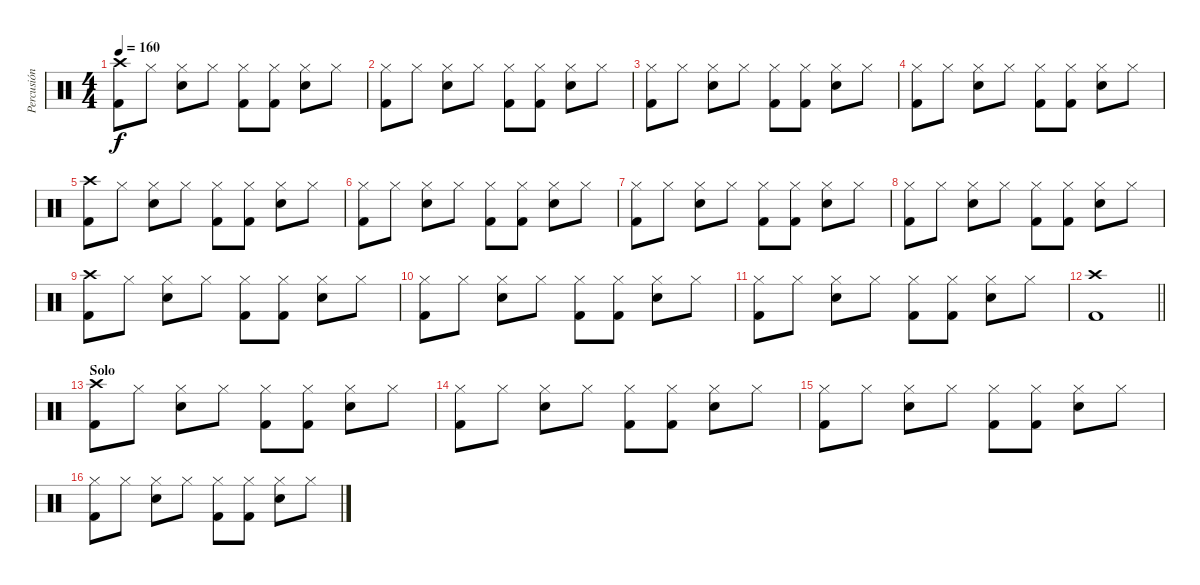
\track ("Percusión" "Percusión") {instrument percussion}
\staff {score}
\articulation defaults
\ts (4 4)
\tempo 160
\clef neutral
\ks c
("Crash high (hit)" "Kick (hit) 2").8{dy f} "Hi-Hat (closed)".8 ("Hi-Hat (closed)" "Snare (hit) 2").8 "Hi-Hat (closed)".8 ("Hi-Hat (closed)" "Kick (hit) 2").8 ("Hi-Hat (closed)" "Kick (hit) 2").8 ("Hi-Hat (closed)" "Snare (hit) 2").8 "Hi-Hat (closed)".8 |
("Hi-Hat (closed)" "Kick (hit) 2").8 "Hi-Hat (closed)".8 ("Hi-Hat (closed)" "Snare (hit) 2").8 "Hi-Hat (closed)".8 ("Hi-Hat (closed)" "Kick (hit) 2").8 ("Hi-Hat (closed)" "Kick (hit) 2").8 ("Hi-Hat (closed)" "Snare (hit) 2").8 "Hi-Hat (closed)".8 |
("Hi-Hat (closed)" "Kick (hit) 2").8 "Hi-Hat (closed)".8 ("Hi-Hat (closed)" "Snare (hit) 2").8 "Hi-Hat (closed)".8 ("Hi-Hat (closed)" "Kick (hit) 2").8 ("Hi-Hat (closed)" "Kick (hit) 2").8 ("Hi-Hat (closed)" "Snare (hit) 2").8 "Hi-Hat (closed)".8 |
("Hi-Hat (closed)" "Kick (hit) 2").8 "Hi-Hat (closed)".8 ("Hi-Hat (closed)" "Snare (hit) 2").8 "Hi-Hat (closed)".8 ("Hi-Hat (closed)" "Kick (hit) 2").8 ("Hi-Hat (closed)" "Kick (hit) 2").8 ("Hi-Hat (closed)" "Snare (hit) 2").8 "Hi-Hat (closed)".8 |
("Crash high (hit)" "Kick (hit) 2").8 "Hi-Hat (closed)".8 ("Hi-Hat (closed)" "Snare (hit) 2").8 "Hi-Hat (closed)".8 ("Hi-Hat (closed)" "Kick (hit) 2").8 ("Hi-Hat (closed)" "Kick (hit) 2").8 ("Hi-Hat (closed)" "Snare (hit) 2").8 "Hi-Hat (closed)".8 |
("Hi-Hat (closed)" "Kick (hit) 2").8 "Hi-Hat (closed)".8 ("Hi-Hat (closed)" "Snare (hit) 2").8 "Hi-Hat (closed)".8 ("Hi-Hat (closed)" "Kick (hit) 2").8 ("Hi-Hat (closed)" "Kick (hit) 2").8 ("Hi-Hat (closed)" "Snare (hit) 2").8 "Hi-Hat (closed)".8 |
("Hi-Hat (closed)" "Kick (hit) 2").8 "Hi-Hat (closed)".8 ("Hi-Hat (closed)" "Snare (hit) 2").8 "Hi-Hat (closed)".8 ("Hi-Hat (closed)" "Kick (hit) 2").8 ("Hi-Hat (closed)" "Kick (hit) 2").8 ("Hi-Hat (closed)" "Snare (hit) 2").8 "Hi-Hat (closed)".8 |
("Hi-Hat (closed)" "Kick (hit) 2").8 "Hi-Hat (closed)".8 ("Hi-Hat (closed)" "Snare (hit) 2").8 "Hi-Hat (closed)".8 ("Hi-Hat (closed)" "Kick (hit) 2").8 ("Hi-Hat (closed)" "Kick (hit) 2").8 ("Hi-Hat (closed)" "Snare (hit) 2").8 "Hi-Hat (closed)".8 |
("Crash high (hit)" "Kick (hit) 2").8 "Hi-Hat (closed)".8 ("Hi-Hat (closed)" "Snare (hit) 2").8 "Hi-Hat (closed)".8 ("Hi-Hat (closed)" "Kick (hit) 2").8 ("Hi-Hat (closed)" "Kick (hit) 2").8 ("Hi-Hat (closed)" "Snare (hit) 2").8 "Hi-Hat (closed)".8 |
("Hi-Hat (closed)" "Kick (hit) 2").8 "Hi-Hat (closed)".8 ("Hi-Hat (closed)" "Snare (hit) 2").8 "Hi-Hat (closed)".8 ("Hi-Hat (closed)" "Kick (hit) 2").8 ("Hi-Hat (closed)" "Kick (hit) 2").8 ("Hi-Hat (closed)" "Snare (hit) 2").8 "Hi-Hat (closed)".8 |
("Hi-Hat (closed)" "Kick (hit) 2").8 "Hi-Hat (closed)".8 ("Hi-Hat (closed)" "Snare (hit) 2").8 "Hi-Hat (closed)".8 ("Hi-Hat (closed)" "Kick (hit) 2").8 ("Hi-Hat (closed)" "Kick (hit) 2").8 ("Hi-Hat (closed)" "Snare (hit) 2").8 "Hi-Hat (closed)".8 |
\barLineRight lightlight
("Crash high (hit)" "Kick (hit) 2").1 |
\section ("" "Solo")
("Crash high (hit)" "Kick (hit) 2").8 "Hi-Hat (closed)".8 ("Hi-Hat (closed)" "Snare (hit) 2").8 "Hi-Hat (closed)".8 ("Hi-Hat (closed)" "Kick (hit) 2").8 ("Hi-Hat (closed)" "Kick (hit) 2").8 ("Hi-Hat (closed)" "Snare (hit) 2").8 "Hi-Hat (closed)".8 |
("Hi-Hat (closed)" "Kick (hit) 2").8 "Hi-Hat (closed)".8 ("Hi-Hat (closed)" "Snare (hit) 2").8 "Hi-Hat (closed)".8 ("Hi-Hat (closed)" "Kick (hit) 2").8 ("Hi-Hat (closed)" "Kick (hit) 2").8 ("Hi-Hat (closed)" "Snare (hit) 2").8 "Hi-Hat (closed)".8 |
("Hi-Hat (closed)" "Kick (hit) 2").8 "Hi-Hat (closed)".8 ("Hi-Hat (closed)" "Snare (hit) 2").8 "Hi-Hat (closed)".8 ("Hi-Hat (closed)" "Kick (hit) 2").8 ("Hi-Hat (closed)" "Kick (hit) 2").8 ("Hi-Hat (closed)" "Snare (hit) 2").8 "Hi-Hat (closed)".8 |
("Hi-Hat (closed)" "Kick (hit) 2").8 "Hi-Hat (closed)".8 ("Hi-Hat (closed)" "Snare (hit) 2").8 "Hi-Hat (closed)".8 ("Hi-Hat (closed)" "Kick (hit) 2").8 ("Hi-Hat (closed)" "Kick (hit) 2").8 ("Hi-Hat (closed)" "Snare (hit) 2").8 "Hi-Hat (closed)".8
